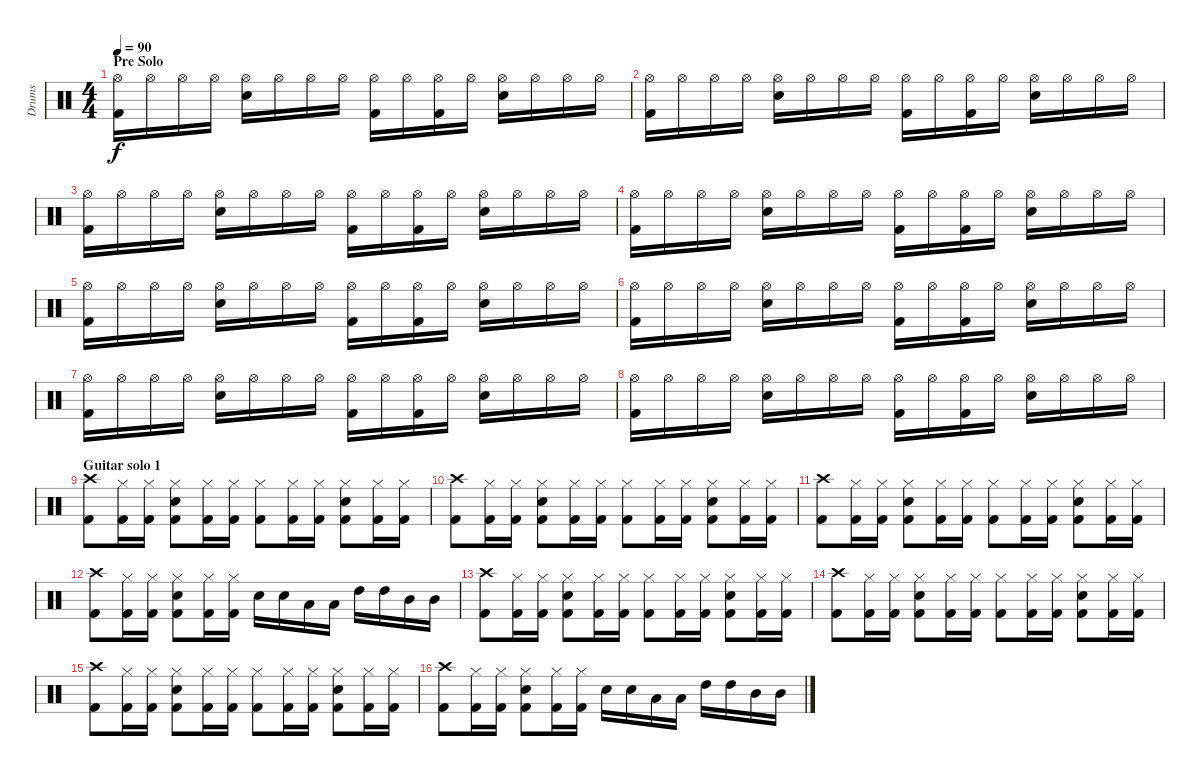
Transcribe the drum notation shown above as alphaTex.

\track ("Drums" "Drums") {instrument percussion}
\staff {score}
\articulation defaults
\ts (4 4)
\section ("" "Pre Solo")
\tempo 90
\clef neutral
\ks c
("Hi-Hat (open)" "Kick (hit) 2").16{dy f} "Hi-Hat (open)".16 "Hi-Hat (open)".16 "Hi-Hat (open)".16 ("Hi-Hat (open)" "Electric Snare (hit)").16 "Hi-Hat (open)".16 "Hi-Hat (open)".16 "Hi-Hat (open)".16 ("Hi-Hat (open)" "Kick (hit) 2").16 "Hi-Hat (open)".16 ("Hi-Hat (open)" "Kick (hit) 2").16 "Hi-Hat (open)".16 ("Hi-Hat (open)" "Electric Snare (hit)").16 "Hi-Hat (open)".16 "Hi-Hat (open)".16 "Hi-Hat (open)".16 |
("Hi-Hat (open)" "Kick (hit) 2").16 "Hi-Hat (open)".16 "Hi-Hat (open)".16 "Hi-Hat (open)".16 ("Hi-Hat (open)" "Electric Snare (hit)").16 "Hi-Hat (open)".16 "Hi-Hat (open)".16 "Hi-Hat (open)".16 ("Hi-Hat (open)" "Kick (hit) 2").16 "Hi-Hat (open)".16 ("Hi-Hat (open)" "Kick (hit) 2").16 "Hi-Hat (open)".16 ("Hi-Hat (open)" "Electric Snare (hit)").16 "Hi-Hat (open)".16 "Hi-Hat (open)".16 "Hi-Hat (open)".16 |
("Hi-Hat (open)" "Kick (hit) 2").16 "Hi-Hat (open)".16 "Hi-Hat (open)".16 "Hi-Hat (open)".16 ("Hi-Hat (open)" "Electric Snare (hit)").16 "Hi-Hat (open)".16 "Hi-Hat (open)".16 "Hi-Hat (open)".16 ("Hi-Hat (open)" "Kick (hit) 2").16 "Hi-Hat (open)".16 ("Hi-Hat (open)" "Kick (hit) 2").16 "Hi-Hat (open)".16 ("Hi-Hat (open)" "Electric Snare (hit)").16 "Hi-Hat (open)".16 "Hi-Hat (open)".16 "Hi-Hat (open)".16 |
("Hi-Hat (open)" "Kick (hit) 2").16 "Hi-Hat (open)".16 "Hi-Hat (open)".16 "Hi-Hat (open)".16 ("Hi-Hat (open)" "Electric Snare (hit)").16 "Hi-Hat (open)".16 "Hi-Hat (open)".16 "Hi-Hat (open)".16 ("Hi-Hat (open)" "Kick (hit) 2").16 "Hi-Hat (open)".16 ("Hi-Hat (open)" "Kick (hit) 2").16 "Hi-Hat (open)".16 ("Hi-Hat (open)" "Electric Snare (hit)").16 "Hi-Hat (open)".16 "Hi-Hat (open)".16 "Hi-Hat (open)".16 |
("Hi-Hat (open)" "Kick (hit) 2").16 "Hi-Hat (open)".16 "Hi-Hat (open)".16 "Hi-Hat (open)".16 ("Hi-Hat (open)" "Electric Snare (hit)").16 "Hi-Hat (open)".16 "Hi-Hat (open)".16 "Hi-Hat (open)".16 ("Hi-Hat (open)" "Kick (hit) 2").16 "Hi-Hat (open)".16 ("Hi-Hat (open)" "Kick (hit) 2").16 "Hi-Hat (open)".16 ("Hi-Hat (open)" "Electric Snare (hit)").16 "Hi-Hat (open)".16 "Hi-Hat (open)".16 "Hi-Hat (open)".16 |
("Hi-Hat (open)" "Kick (hit) 2").16 "Hi-Hat (open)".16 "Hi-Hat (open)".16 "Hi-Hat (open)".16 ("Hi-Hat (open)" "Electric Snare (hit)").16 "Hi-Hat (open)".16 "Hi-Hat (open)".16 "Hi-Hat (open)".16 ("Hi-Hat (open)" "Kick (hit) 2").16 "Hi-Hat (open)".16 ("Hi-Hat (open)" "Kick (hit) 2").16 "Hi-Hat (open)".16 ("Hi-Hat (open)" "Electric Snare (hit)").16 "Hi-Hat (open)".16 "Hi-Hat (open)".16 "Hi-Hat (open)".16 |
("Hi-Hat (open)" "Kick (hit) 2").16 "Hi-Hat (open)".16 "Hi-Hat (open)".16 "Hi-Hat (open)".16 ("Hi-Hat (open)" "Electric Snare (hit)").16 "Hi-Hat (open)".16 "Hi-Hat (open)".16 "Hi-Hat (open)".16 ("Hi-Hat (open)" "Kick (hit) 2").16 "Hi-Hat (open)".16 ("Hi-Hat (open)" "Kick (hit) 2").16 "Hi-Hat (open)".16 ("Hi-Hat (open)" "Electric Snare (hit)").16 "Hi-Hat (open)".16 "Hi-Hat (open)".16 "Hi-Hat (open)".16 |
("Hi-Hat (open)" "Kick (hit) 2").16 "Hi-Hat (open)".16 "Hi-Hat (open)".16 "Hi-Hat (open)".16 ("Hi-Hat (open)" "Electric Snare (hit)").16 "Hi-Hat (open)".16 "Hi-Hat (open)".16 "Hi-Hat (open)".16 ("Hi-Hat (open)" "Kick (hit) 2").16 "Hi-Hat (open)".16 ("Hi-Hat (open)" "Kick (hit) 2").16 "Hi-Hat (open)".16 ("Hi-Hat (open)" "Electric Snare (hit)").16 "Hi-Hat (open)".16 "Hi-Hat (open)".16 "Hi-Hat (open)".16 |
\section ("" "Guitar solo 1")
("Crash high (hit)" "Kick (hit) 2").8 ("Hi-Hat (closed)" "Kick (hit) 2").16 ("Hi-Hat (closed)" "Kick (hit) 2").16 ("Hi-Hat (closed)" "Kick (hit) 2" "Electric Snare (hit)").8 ("Hi-Hat (closed)" "Kick (hit) 2").16 ("Hi-Hat (closed)" "Kick (hit) 2").16 ("Hi-Hat (closed)" "Kick (hit) 2").8 ("Hi-Hat (closed)" "Kick (hit) 2").16 ("Hi-Hat (closed)" "Kick (hit) 2").16 ("Hi-Hat (closed)" "Kick (hit) 2" "Electric Snare (hit)").8 ("Hi-Hat (closed)" "Kick (hit) 2").16 ("Hi-Hat (closed)" "Kick (hit) 2").16 |
("Crash high (hit)" "Kick (hit) 2").8 ("Hi-Hat (closed)" "Kick (hit) 2").16 ("Hi-Hat (closed)" "Kick (hit) 2").16 ("Hi-Hat (closed)" "Kick (hit) 2" "Electric Snare (hit)").8 ("Hi-Hat (closed)" "Kick (hit) 2").16 ("Hi-Hat (closed)" "Kick (hit) 2").16 ("Hi-Hat (closed)" "Kick (hit) 2").8 ("Hi-Hat (closed)" "Kick (hit) 2").16 ("Hi-Hat (closed)" "Kick (hit) 2").16 ("Hi-Hat (closed)" "Kick (hit) 2" "Electric Snare (hit)").8 ("Hi-Hat (closed)" "Kick (hit) 2").16 ("Hi-Hat (closed)" "Kick (hit) 2").16 |
("Crash high (hit)" "Kick (hit) 2").8 ("Hi-Hat (closed)" "Kick (hit) 2").16 ("Hi-Hat (closed)" "Kick (hit) 2").16 ("Hi-Hat (closed)" "Kick (hit) 2" "Electric Snare (hit)").8 ("Hi-Hat (closed)" "Kick (hit) 2").16 ("Hi-Hat (closed)" "Kick (hit) 2").16 ("Hi-Hat (closed)" "Kick (hit) 2").8 ("Hi-Hat (closed)" "Kick (hit) 2").16 ("Hi-Hat (closed)" "Kick (hit) 2").16 ("Hi-Hat (closed)" "Kick (hit) 2" "Electric Snare (hit)").8 ("Hi-Hat (closed)" "Kick (hit) 2").16 ("Hi-Hat (closed)" "Kick (hit) 2").16 |
("Crash high (hit)" "Kick (hit) 2").8 ("Hi-Hat (closed)" "Kick (hit) 2").16 ("Hi-Hat (closed)" "Kick (hit) 2").16 ("Hi-Hat (closed)" "Kick (hit) 2" "Electric Snare (hit)").8 ("Hi-Hat (closed)" "Kick (hit) 2").16 ("Hi-Hat (closed)" "Kick (hit) 2").16 "Electric Snare (hit)".16 "Electric Snare (hit)".16 "Low Tom (hit)".16 "Low Tom (hit)".16 "High Tom (hit)".16 "High Tom (hit)".16 "Mid Tom (hit)".16 "Mid Tom (hit)".16 |
("Crash high (hit)" "Kick (hit) 2").8 ("Hi-Hat (closed)" "Kick (hit) 2").16 ("Hi-Hat (closed)" "Kick (hit) 2").16 ("Hi-Hat (closed)" "Kick (hit) 2" "Electric Snare (hit)").8 ("Hi-Hat (closed)" "Kick (hit) 2").16 ("Hi-Hat (closed)" "Kick (hit) 2").16 ("Hi-Hat (closed)" "Kick (hit) 2").8 ("Hi-Hat (closed)" "Kick (hit) 2").16 ("Hi-Hat (closed)" "Kick (hit) 2").16 ("Hi-Hat (closed)" "Kick (hit) 2" "Electric Snare (hit)").8 ("Hi-Hat (closed)" "Kick (hit) 2").16 ("Hi-Hat (closed)" "Kick (hit) 2").16 |
("Crash high (hit)" "Kick (hit) 2").8 ("Hi-Hat (closed)" "Kick (hit) 2").16 ("Hi-Hat (closed)" "Kick (hit) 2").16 ("Hi-Hat (closed)" "Kick (hit) 2" "Electric Snare (hit)").8 ("Hi-Hat (closed)" "Kick (hit) 2").16 ("Hi-Hat (closed)" "Kick (hit) 2").16 ("Hi-Hat (closed)" "Kick (hit) 2").8 ("Hi-Hat (closed)" "Kick (hit) 2").16 ("Hi-Hat (closed)" "Kick (hit) 2").16 ("Hi-Hat (closed)" "Kick (hit) 2" "Electric Snare (hit)").8 ("Hi-Hat (closed)" "Kick (hit) 2").16 ("Hi-Hat (closed)" "Kick (hit) 2").16 |
("Crash high (hit)" "Kick (hit) 2").8 ("Hi-Hat (closed)" "Kick (hit) 2").16 ("Hi-Hat (closed)" "Kick (hit) 2").16 ("Hi-Hat (closed)" "Kick (hit) 2" "Electric Snare (hit)").8 ("Hi-Hat (closed)" "Kick (hit) 2").16 ("Hi-Hat (closed)" "Kick (hit) 2").16 ("Hi-Hat (closed)" "Kick (hit) 2").8 ("Hi-Hat (closed)" "Kick (hit) 2").16 ("Hi-Hat (closed)" "Kick (hit) 2").16 ("Hi-Hat (closed)" "Kick (hit) 2" "Electric Snare (hit)").8 ("Hi-Hat (closed)" "Kick (hit) 2").16 ("Hi-Hat (closed)" "Kick (hit) 2").16 |
("Crash high (hit)" "Kick (hit) 2").8 ("Hi-Hat (closed)" "Kick (hit) 2").16 ("Hi-Hat (closed)" "Kick (hit) 2").16 ("Hi-Hat (closed)" "Kick (hit) 2" "Electric Snare (hit)").8 ("Hi-Hat (closed)" "Kick (hit) 2").16 ("Hi-Hat (closed)" "Kick (hit) 2").16 "Electric Snare (hit)".16 "Electric Snare (hit)".16 "Low Tom (hit)".16 "Low Tom (hit)".16 "High Tom (hit)".16 "High Tom (hit)".16 "Mid Tom (hit)".16 "Mid Tom (hit)".16
